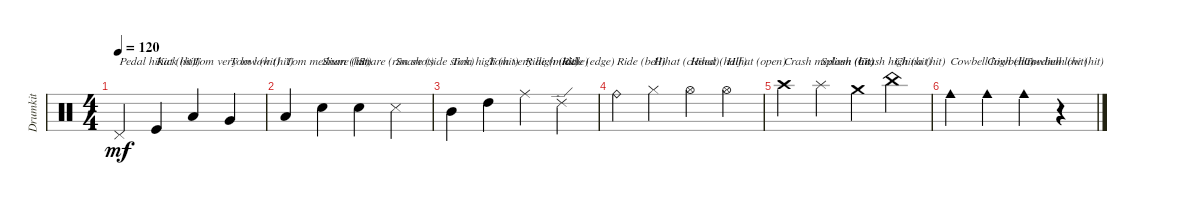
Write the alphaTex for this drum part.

\track ("Drumkit" "Drumkit") {instrument percussion}
\staff {score}
\articulation defaults
\ts (4 4)
\tempo 120
\clef neutral
\ks c "Pedal Hi-Hat (hit)".4{txt "Pedal hihat (hit)" dy mf} "Kick (hit)".4{txt "Kick (hit)"} "Low Floor Tom (hit)".4{txt "Tom very low (hit)"} "Very Low Tom (hit)".4{txt "Tom low (hit)"}
|
"Low Tom (hit)".4{txt "Tom medium (hit)"} "Snare (hit) 2".4{txt "Snare (hit)"} "Snare (hit) 2".4{txt "Snare (rim shot)"} "Snare (side stick) 3".4{txt "Snare (side stick)"} |
"Mid Tom (hit)".4{txt "Tom high (hit)"} "High Tom (hit)".4{txt "Tom very high (hit)"} "Ride (middle)".4{txt "Ride (middle)"} "Ride (edge) 2".4{txt "Ride (edge)"} |
"Ride (bell)".4{txt "Ride (bell)"} "Hi-Hat (closed)".4{txt "Hihat (closed)"} "Hi-Hat (open)".4{txt "Hihat (half)"} "Hi-Hat (open)".4{txt "Hihat (open)"} |
"Crash high (hit)".4{txt "Crash medium (hit)"} "Splash (hit)".4{txt "Splash (hit)"} "Crash medium (hit)".4{txt "Crash high (hit)"} "China (hit)".4{txt "China (hit)"} |
"Cowbell medium (hit)".4{txt "Cowbell high (hit)"} "Cowbell medium (hit)".4{txt "Cowbell medium (hit)"} "Cowbell medium (hit)".4{txt "Cowbell low (hit)"} r.4
